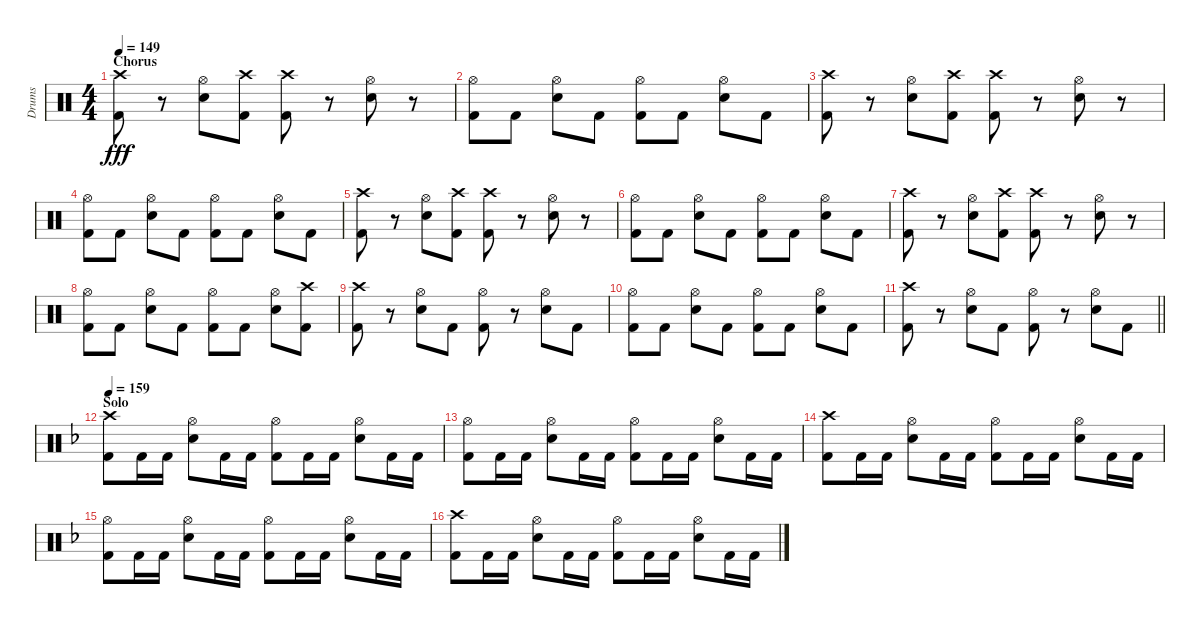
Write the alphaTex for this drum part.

\track ("Drums" "Drums") {instrument percussion}
\staff {score}
\articulation defaults
\ts (4 4)
\section ("" "Chorus")
\tempo 149
\clef neutral
\ks c
("Crash high (hit)" "Kick (hit) 2").8{dy fff} r.8 ("Hi-Hat (open)" "Snare (hit) 2").8 ("Crash high (hit)" "Kick (hit) 2").8 ("Crash high (hit)" "Kick (hit) 2").8 r.8 ("Hi-Hat (open)" "Snare (hit) 2").8 r.8 |
("Hi-Hat (open)" "Kick (hit) 2").8 "Kick (hit) 2".8 ("Hi-Hat (open)" "Snare (hit) 2").8 "Kick (hit) 2".8 ("Hi-Hat (open)" "Kick (hit) 2").8 "Kick (hit) 2".8 ("Hi-Hat (open)" "Snare (hit) 2").8 "Kick (hit) 2".8 |
("Crash high (hit)" "Kick (hit) 2").8 r.8 ("Hi-Hat (open)" "Snare (hit) 2").8 ("Crash high (hit)" "Kick (hit) 2").8 ("Crash high (hit)" "Kick (hit) 2").8 r.8 ("Hi-Hat (open)" "Snare (hit) 2").8 r.8 |
("Hi-Hat (open)" "Kick (hit) 2").8 "Kick (hit) 2".8 ("Hi-Hat (open)" "Snare (hit) 2").8 "Kick (hit) 2".8 ("Hi-Hat (open)" "Kick (hit) 2").8 "Kick (hit) 2".8 ("Hi-Hat (open)" "Snare (hit) 2").8 "Kick (hit) 2".8 |
("Crash high (hit)" "Kick (hit) 2").8 r.8 ("Hi-Hat (open)" "Snare (hit) 2").8 ("Crash high (hit)" "Kick (hit) 2").8 ("Crash high (hit)" "Kick (hit) 2").8 r.8 ("Hi-Hat (open)" "Snare (hit) 2").8 r.8 |
("Hi-Hat (open)" "Kick (hit) 2").8 "Kick (hit) 2".8 ("Hi-Hat (open)" "Snare (hit) 2").8 "Kick (hit) 2".8 ("Hi-Hat (open)" "Kick (hit) 2").8 "Kick (hit) 2".8 ("Hi-Hat (open)" "Snare (hit) 2").8 "Kick (hit) 2".8 |
("Crash high (hit)" "Kick (hit) 2").8 r.8 ("Hi-Hat (open)" "Snare (hit) 2").8 ("Crash high (hit)" "Kick (hit) 2").8 ("Crash high (hit)" "Kick (hit) 2").8 r.8 ("Hi-Hat (open)" "Snare (hit) 2").8 r.8 |
("Hi-Hat (open)" "Kick (hit) 2").8 "Kick (hit) 2".8 ("Hi-Hat (open)" "Snare (hit) 2").8 "Kick (hit) 2".8 ("Hi-Hat (open)" "Kick (hit) 2").8 "Kick (hit) 2".8 ("Hi-Hat (open)" "Snare (hit) 2").8 ("Crash high (hit)" "Kick (hit) 2").8 |
("Crash high (hit)" "Kick (hit) 2").8 r.8 ("Hi-Hat (open)" "Snare (hit) 2").8 "Kick (hit) 2".8 ("Hi-Hat (open)" "Kick (hit) 2").8 r.8 ("Hi-Hat (open)" "Snare (hit) 2").8 "Kick (hit) 2".8 |
("Hi-Hat (open)" "Kick (hit) 2").8 "Kick (hit) 2".8 ("Hi-Hat (open)" "Snare (hit) 2").8 "Kick (hit) 2".8 ("Hi-Hat (open)" "Kick (hit) 2").8 "Kick (hit) 2".8 ("Hi-Hat (open)" "Snare (hit) 2").8 "Kick (hit) 2".8 |
\barLineRight lightlight
("Crash high (hit)" "Kick (hit) 2").8 r.8 ("Hi-Hat (open)" "Snare (hit) 2").8 "Kick (hit) 2".8 ("Hi-Hat (open)" "Kick (hit) 2").8 r.8 ("Hi-Hat (open)" "Snare (hit) 2").8 "Kick (hit) 2".8 |
\section ("" "Solo")
\tempo 159
\ks f
("Crash high (hit)" "Kick (hit) 2").8{volume 12} "Kick (hit) 2".16 "Kick (hit) 2".16 ("Hi-Hat (open)" "Snare (hit) 2").8 "Kick (hit) 2".16 "Kick (hit) 2".16 ("Hi-Hat (open)" "Kick (hit) 2").8 "Kick (hit) 2".16 "Kick (hit) 2".16 ("Hi-Hat (open)" "Snare (hit) 2").8 "Kick (hit) 2".16 "Kick (hit) 2".16 |
("Hi-Hat (open)" "Kick (hit) 2").8 "Kick (hit) 2".16 "Kick (hit) 2".16 ("Hi-Hat (open)" "Snare (hit) 2").8 "Kick (hit) 2".16 "Kick (hit) 2".16 ("Hi-Hat (open)" "Kick (hit) 2").8 "Kick (hit) 2".16 "Kick (hit) 2".16 ("Hi-Hat (open)" "Snare (hit) 2").8 "Kick (hit) 2".16 "Kick (hit) 2".16 |
("Crash high (hit)" "Kick (hit) 2").8 "Kick (hit) 2".16 "Kick (hit) 2".16 ("Hi-Hat (open)" "Snare (hit) 2").8 "Kick (hit) 2".16 "Kick (hit) 2".16 ("Hi-Hat (open)" "Kick (hit) 2").8 "Kick (hit) 2".16 "Kick (hit) 2".16 ("Hi-Hat (open)" "Snare (hit) 2").8 "Kick (hit) 2".16 "Kick (hit) 2".16 |
("Hi-Hat (open)" "Kick (hit) 2").8 "Kick (hit) 2".16 "Kick (hit) 2".16 ("Hi-Hat (open)" "Snare (hit) 2").8 "Kick (hit) 2".16 "Kick (hit) 2".16 ("Hi-Hat (open)" "Kick (hit) 2").8 "Kick (hit) 2".16 "Kick (hit) 2".16 ("Hi-Hat (open)" "Snare (hit) 2").8 "Kick (hit) 2".16 "Kick (hit) 2".16 |
("Crash high (hit)" "Kick (hit) 2").8 "Kick (hit) 2".16 "Kick (hit) 2".16 ("Hi-Hat (open)" "Snare (hit) 2").8 "Kick (hit) 2".16 "Kick (hit) 2".16 ("Hi-Hat (open)" "Kick (hit) 2").8 "Kick (hit) 2".16 "Kick (hit) 2".16 ("Hi-Hat (open)" "Snare (hit) 2").8 "Kick (hit) 2".16 "Kick (hit) 2".16
